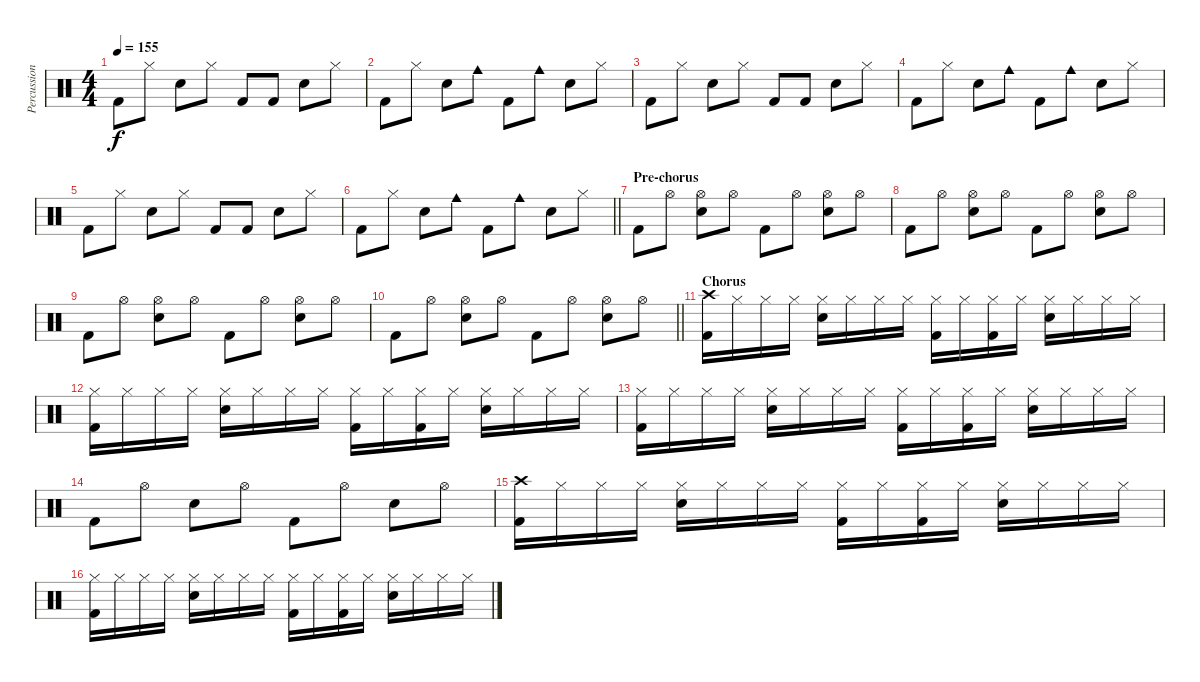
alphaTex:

\track ("Percussioni" "Percussion") {instrument percussion}
\staff {score}
\articulation defaults
\ts (4 4)
\tempo 155
\clef neutral
\ks c "Kick (hit) 2".8{dy f} "Hi-Hat (closed)".8 "Snare (hit) 2".8 "Hi-Hat (closed)".8 "Kick (hit) 2".8 "Kick (hit) 2".8 "Snare (hit) 2".8 "Hi-Hat (closed)".8
|
"Kick (hit) 2".8 "Hi-Hat (closed)".8 "Snare (hit) 2".8 "Cowbell medium (hit)".8 "Kick (hit) 2".8 "Cowbell medium (hit)".8 "Snare (hit) 2".8 "Hi-Hat (closed)".8 |
"Kick (hit) 2".8 "Hi-Hat (closed)".8 "Snare (hit) 2".8 "Hi-Hat (closed)".8 "Kick (hit) 2".8 "Kick (hit) 2".8 "Snare (hit) 2".8 "Hi-Hat (closed)".8 |
"Kick (hit) 2".8 "Hi-Hat (closed)".8 "Snare (hit) 2".8 "Cowbell medium (hit)".8 "Kick (hit) 2".8 "Cowbell medium (hit)".8 "Snare (hit) 2".8 "Hi-Hat (closed)".8 |
"Kick (hit) 2".8 "Hi-Hat (closed)".8 "Snare (hit) 2".8 "Hi-Hat (closed)".8 "Kick (hit) 2".8 "Kick (hit) 2".8 "Snare (hit) 2".8 "Hi-Hat (closed)".8 |
\barLineRight lightlight "Kick (hit) 2".8 "Hi-Hat (closed)".8 "Snare (hit) 2".8 "Cowbell medium (hit)".8 "Kick (hit) 2".8 "Cowbell medium (hit)".8 "Snare (hit) 2".8 "Hi-Hat (closed)".8
|
\section ("" "Pre-chorus")
"Kick (hit) 2".8 "Hi-Hat (open)".8 ("Hi-Hat (open)" "Snare (hit) 2").8 "Hi-Hat (open)".8 "Kick (hit) 2".8 "Hi-Hat (open)".8 ("Hi-Hat (open)" "Snare (hit) 2").8 "Hi-Hat (open)".8 |
"Kick (hit) 2".8 "Hi-Hat (open)".8 ("Hi-Hat (open)" "Snare (hit) 2").8 "Hi-Hat (open)".8 "Kick (hit) 2".8 "Hi-Hat (open)".8 ("Hi-Hat (open)" "Snare (hit) 2").8 "Hi-Hat (open)".8 |
"Kick (hit) 2".8 "Hi-Hat (open)".8 ("Hi-Hat (open)" "Snare (hit) 2").8 "Hi-Hat (open)".8 "Kick (hit) 2".8 "Hi-Hat (open)".8 ("Hi-Hat (open)" "Snare (hit) 2").8 "Hi-Hat (open)".8 |
\barLineRight lightlight "Kick (hit) 2".8 "Hi-Hat (open)".8
("Hi-Hat (open)" "Snare (hit) 2").8 "Hi-Hat (open)".8 "Kick (hit) 2".8 "Hi-Hat (open)".8 ("Hi-Hat (open)" "Snare (hit) 2").8 "Hi-Hat (open)".8 |
\section ("" "Chorus")
("Crash high (hit)" "Kick (hit) 2").16 "Hi-Hat (closed)".16 "Hi-Hat (closed)".16 "Hi-Hat (closed)".16 ("Hi-Hat (closed)" "Snare (hit) 2").16 "Hi-Hat (closed)".16 "Hi-Hat (closed)".16 "Hi-Hat (closed)".16 ("Hi-Hat (closed)" "Kick (hit) 2").16 "Hi-Hat (closed)".16 ("Hi-Hat (closed)" "Kick (hit) 2").16 "Hi-Hat (closed)".16 ("Hi-Hat (closed)" "Snare (hit) 2").16 "Hi-Hat (closed)".16 "Hi-Hat (closed)".16 "Hi-Hat (closed)".16 |
("Hi-Hat (closed)" "Kick (hit) 2").16 "Hi-Hat (closed)".16 "Hi-Hat (closed)".16 "Hi-Hat (closed)".16 ("Hi-Hat (closed)" "Snare (hit) 2").16 "Hi-Hat (closed)".16 "Hi-Hat (closed)".16 "Hi-Hat (closed)".16 ("Hi-Hat (closed)" "Kick (hit) 2").16 "Hi-Hat (closed)".16 ("Hi-Hat (closed)" "Kick (hit) 2").16 "Hi-Hat (closed)".16 ("Hi-Hat (closed)" "Snare (hit) 2").16 "Hi-Hat (closed)".16 "Hi-Hat (closed)".16 "Hi-Hat (closed)".16 |
("Hi-Hat (closed)" "Kick (hit) 2").16 "Hi-Hat (closed)".16 "Hi-Hat (closed)".16 "Hi-Hat (closed)".16 ("Hi-Hat (closed)" "Snare (hit) 2").16 "Hi-Hat (closed)".16 "Hi-Hat (closed)".16 "Hi-Hat (closed)".16 ("Hi-Hat (closed)" "Kick (hit) 2").16 "Hi-Hat (closed)".16 ("Hi-Hat (closed)" "Kick (hit) 2").16 "Hi-Hat (closed)".16 ("Hi-Hat (closed)" "Snare (hit) 2").16 "Hi-Hat (closed)".16 "Hi-Hat (closed)".16 "Hi-Hat (closed)".16 |
"Kick (hit) 2".8 "Hi-Hat (open)".8 "Snare (hit) 2".8 "Hi-Hat (open)".8 "Kick (hit) 2".8 "Hi-Hat (open)".8 "Snare (hit) 2".8 "Hi-Hat (open)".8 |
("Crash high (hit)" "Kick (hit) 2").16 "Hi-Hat (closed)".16 "Hi-Hat (closed)".16 "Hi-Hat (closed)".16 ("Hi-Hat (closed)" "Snare (hit) 2").16 "Hi-Hat (closed)".16 "Hi-Hat (closed)".16 "Hi-Hat (closed)".16 ("Hi-Hat (closed)" "Kick (hit) 2").16 "Hi-Hat (closed)".16 ("Hi-Hat (closed)" "Kick (hit) 2").16 "Hi-Hat (closed)".16 ("Hi-Hat (closed)" "Snare (hit) 2").16 "Hi-Hat (closed)".16 "Hi-Hat (closed)".16 "Hi-Hat (closed)".16 |
("Hi-Hat (closed)" "Kick (hit) 2").16 "Hi-Hat (closed)".16 "Hi-Hat (closed)".16 "Hi-Hat (closed)".16 ("Hi-Hat (closed)" "Snare (hit) 2").16 "Hi-Hat (closed)".16 "Hi-Hat (closed)".16 "Hi-Hat (closed)".16 ("Hi-Hat (closed)" "Kick (hit) 2").16 "Hi-Hat (closed)".16 ("Hi-Hat (closed)" "Kick (hit) 2").16 "Hi-Hat (closed)".16 ("Hi-Hat (closed)" "Snare (hit) 2").16 "Hi-Hat (closed)".16 "Hi-Hat (closed)".16 "Hi-Hat (closed)".16
